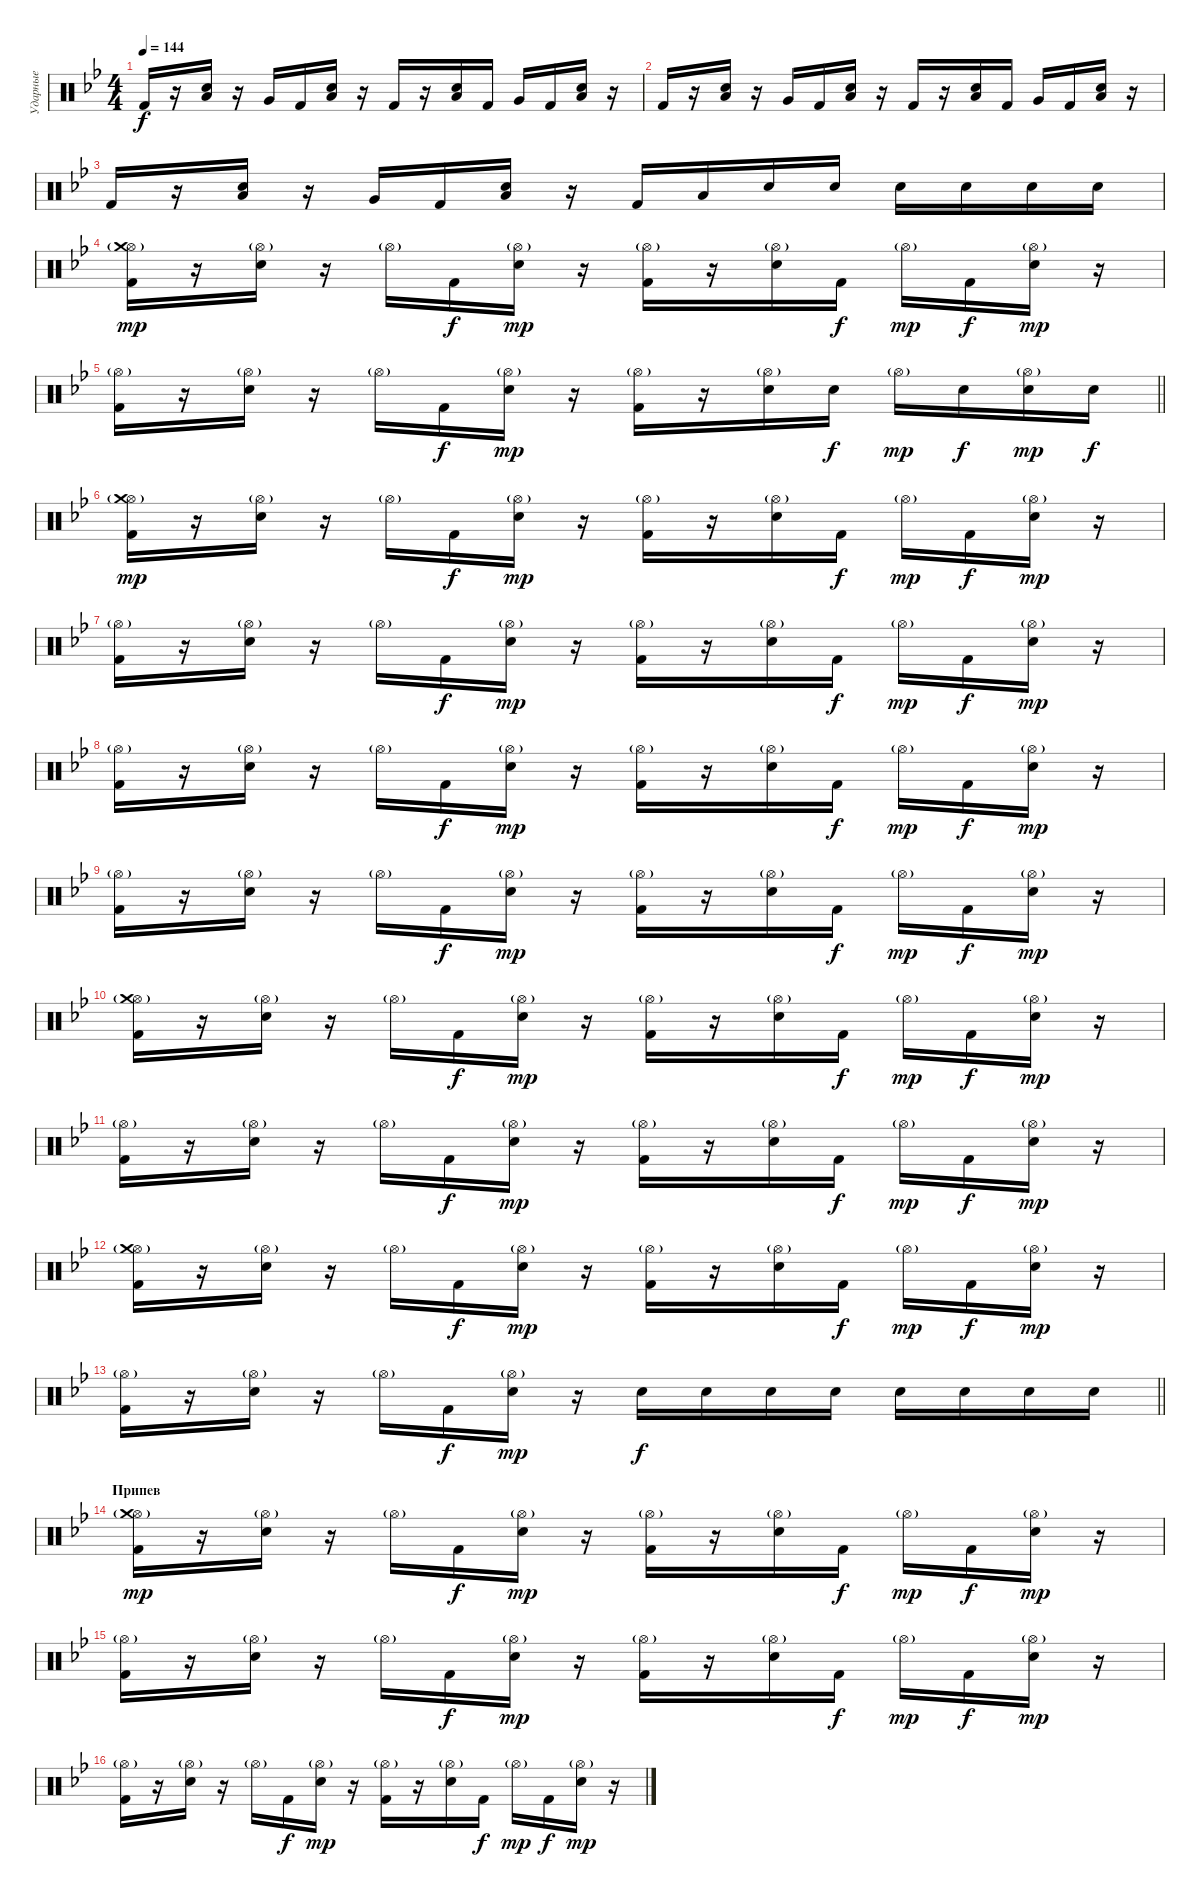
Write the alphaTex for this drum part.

\track ("Ударные" "Ударные") {instrument percussion}
\staff {score}
\articulation defaults
\ts (4 4)
\tempo 144
\clef neutral
\ks gminor "Kick (hit) 2".16{dy f}
r.16 ("Electric Snare (hit)" "Low Tom (hit)").16 r.16 "Very Low Tom (hit)".16 "Kick (hit) 2".16 ("Electric Snare (hit)" "Low Tom (hit)").16 r.16 "Kick (hit) 2".16 r.16 ("Electric Snare (hit)" "Low Tom (hit)").16 "Kick (hit) 2".16 "Very Low Tom (hit)".16 "Kick (hit) 2".16 ("Electric Snare (hit)" "Low Tom (hit)").16 r.16 |
"Kick (hit) 2".16 r.16 ("Electric Snare (hit)" "Low Tom (hit)").16 r.16 "Very Low Tom (hit)".16 "Kick (hit) 2".16 ("Electric Snare (hit)" "Low Tom (hit)").16 r.16 "Kick (hit) 2".16 r.16 ("Electric Snare (hit)" "Low Tom (hit)").16 "Kick (hit) 2".16 "Very Low Tom (hit)".16 "Kick (hit) 2".16 ("Electric Snare (hit)" "Low Tom (hit)").16 r.16 |
"Kick (hit) 2".16 r.16 ("Electric Snare (hit)" "Low Tom (hit)").16 r.16 "Very Low Tom (hit)".16 "Kick (hit) 2".16 ("Electric Snare (hit)" "Low Tom (hit)").16 r.16 "Kick (hit) 2".16 "Low Tom (hit)".16 "Electric Snare (hit)".16 "Electric Snare (hit)".16 "Electric Snare (hit)".16 "Electric Snare (hit)".16 "Electric Snare (hit)".16 "Electric Snare (hit)".16 |
("Hi-Hat (open)"{g} "Crash medium (hit)" "Kick (hit) 2").16{dy mp} r.16 ("Hi-Hat (open)"{g} "Electric Snare (hit)").16 r.16 "Hi-Hat (open)"{g}.16 "Kick (hit) 2".16{dy f} ("Hi-Hat (open)"{g} "Electric Snare (hit)").16{dy mp} r.16 ("Hi-Hat (open)"{g} "Kick (hit) 2").16 r.16 ("Hi-Hat (open)"{g} "Electric Snare (hit)").16 "Kick (hit) 2".16{dy f} "Hi-Hat (open)"{g}.16{dy mp} "Kick (hit) 2".16{dy f} ("Hi-Hat (open)"{g} "Electric Snare (hit)").16{dy mp} r.16 |
\barLineRight lightlight
("Hi-Hat (open)"{g} "Kick (hit) 2").16 r.16 ("Hi-Hat (open)"{g} "Electric Snare (hit)").16 r.16 "Hi-Hat (open)"{g}.16 "Kick (hit) 2".16{dy f} ("Hi-Hat (open)"{g} "Electric Snare (hit)").16{dy mp} r.16 ("Hi-Hat (open)"{g} "Kick (hit) 2").16 r.16 ("Hi-Hat (open)"{g} "Electric Snare (hit)").16 "Electric Snare (hit)".16{dy f} "Hi-Hat (open)"{g}.16{dy mp} "Electric Snare (hit)".16{dy f} ("Hi-Hat (open)"{g} "Electric Snare (hit)").16{dy mp} "Electric Snare (hit)".16{dy f} |
\section ("" "")
("Hi-Hat (open)"{g} "Crash medium (hit)" "Kick (hit) 2").16{dy mp} r.16 ("Hi-Hat (open)"{g} "Electric Snare (hit)").16 r.16 "Hi-Hat (open)"{g}.16 "Kick (hit) 2".16{dy f} ("Hi-Hat (open)"{g} "Electric Snare (hit)").16{dy mp} r.16 ("Hi-Hat (open)"{g} "Kick (hit) 2").16 r.16 ("Hi-Hat (open)"{g} "Electric Snare (hit)").16 "Kick (hit) 2".16{dy f} "Hi-Hat (open)"{g}.16{dy mp} "Kick (hit) 2".16{dy f} ("Hi-Hat (open)"{g} "Electric Snare (hit)").16{dy mp} r.16 |
("Hi-Hat (open)"{g} "Kick (hit) 2").16 r.16 ("Hi-Hat (open)"{g} "Electric Snare (hit)").16 r.16 "Hi-Hat (open)"{g}.16 "Kick (hit) 2".16{dy f} ("Hi-Hat (open)"{g} "Electric Snare (hit)").16{dy mp} r.16 ("Hi-Hat (open)"{g} "Kick (hit) 2").16 r.16 ("Hi-Hat (open)"{g} "Electric Snare (hit)").16 "Kick (hit) 2".16{dy f} "Hi-Hat (open)"{g}.16{dy mp} "Kick (hit) 2".16{dy f} ("Hi-Hat (open)"{g} "Electric Snare (hit)").16{dy mp} r.16 |
("Hi-Hat (open)"{g} "Kick (hit) 2").16 r.16 ("Hi-Hat (open)"{g} "Electric Snare (hit)").16 r.16 "Hi-Hat (open)"{g}.16 "Kick (hit) 2".16{dy f} ("Hi-Hat (open)"{g} "Electric Snare (hit)").16{dy mp} r.16 ("Hi-Hat (open)"{g} "Kick (hit) 2").16 r.16 ("Hi-Hat (open)"{g} "Electric Snare (hit)").16 "Kick (hit) 2".16{dy f} "Hi-Hat (open)"{g}.16{dy mp} "Kick (hit) 2".16{dy f} ("Hi-Hat (open)"{g} "Electric Snare (hit)").16{dy mp} r.16 |
("Hi-Hat (open)"{g} "Kick (hit) 2").16 r.16 ("Hi-Hat (open)"{g} "Electric Snare (hit)").16 r.16 "Hi-Hat (open)"{g}.16 "Kick (hit) 2".16{dy f} ("Hi-Hat (open)"{g} "Electric Snare (hit)").16{dy mp} r.16 ("Hi-Hat (open)"{g} "Kick (hit) 2").16 r.16 ("Hi-Hat (open)"{g} "Electric Snare (hit)").16 "Kick (hit) 2".16{dy f} "Hi-Hat (open)"{g}.16{dy mp} "Kick (hit) 2".16{dy f} ("Hi-Hat (open)"{g} "Electric Snare (hit)").16{dy mp} r.16 |
("Hi-Hat (open)"{g} "Crash medium (hit)" "Kick (hit) 2").16 r.16 ("Hi-Hat (open)"{g} "Electric Snare (hit)").16 r.16 "Hi-Hat (open)"{g}.16 "Kick (hit) 2".16{dy f} ("Hi-Hat (open)"{g} "Electric Snare (hit)").16{dy mp} r.16 ("Hi-Hat (open)"{g} "Kick (hit) 2").16 r.16 ("Hi-Hat (open)"{g} "Electric Snare (hit)").16 "Kick (hit) 2".16{dy f} "Hi-Hat (open)"{g}.16{dy mp} "Kick (hit) 2".16{dy f} ("Hi-Hat (open)"{g} "Electric Snare (hit)").16{dy mp} r.16 |
("Hi-Hat (open)"{g} "Kick (hit) 2").16 r.16 ("Hi-Hat (open)"{g} "Electric Snare (hit)").16 r.16 "Hi-Hat (open)"{g}.16 "Kick (hit) 2".16{dy f} ("Hi-Hat (open)"{g} "Electric Snare (hit)").16{dy mp} r.16 ("Hi-Hat (open)"{g} "Kick (hit) 2").16 r.16 ("Hi-Hat (open)"{g} "Electric Snare (hit)").16 "Kick (hit) 2".16{dy f} "Hi-Hat (open)"{g}.16{dy mp} "Kick (hit) 2".16{dy f} ("Hi-Hat (open)"{g} "Electric Snare (hit)").16{dy mp} r.16 |
("Hi-Hat (open)"{g} "Crash medium (hit)" "Kick (hit) 2").16 r.16 ("Hi-Hat (open)"{g} "Electric Snare (hit)").16 r.16 "Hi-Hat (open)"{g}.16 "Kick (hit) 2".16{dy f} ("Hi-Hat (open)"{g} "Electric Snare (hit)").16{dy mp} r.16 ("Hi-Hat (open)"{g} "Kick (hit) 2").16 r.16 ("Hi-Hat (open)"{g} "Electric Snare (hit)").16 "Kick (hit) 2".16{dy f} "Hi-Hat (open)"{g}.16{dy mp} "Kick (hit) 2".16{dy f} ("Hi-Hat (open)"{g} "Electric Snare (hit)").16{dy mp} r.16 |
\barLineRight lightlight
("Hi-Hat (open)"{g} "Kick (hit) 2").16 r.16 ("Hi-Hat (open)"{g} "Electric Snare (hit)").16 r.16 "Hi-Hat (open)"{g}.16 "Kick (hit) 2".16{dy f} ("Hi-Hat (open)"{g} "Electric Snare (hit)").16{dy mp} r.16 "Electric Snare (hit)".16{dy f} "Electric Snare (hit)".16 "Electric Snare (hit)".16 "Electric Snare (hit)".16 "Electric Snare (hit)".16 "Electric Snare (hit)".16 "Electric Snare (hit)".16 "Electric Snare (hit)".16 |
\section ("" "Припев")
("Hi-Hat (open)"{g} "Crash medium (hit)" "Kick (hit) 2").16{dy mp} r.16 ("Hi-Hat (open)"{g} "Electric Snare (hit)").16 r.16 "Hi-Hat (open)"{g}.16 "Kick (hit) 2".16{dy f} ("Hi-Hat (open)"{g} "Electric Snare (hit)").16{dy mp} r.16 ("Hi-Hat (open)"{g} "Kick (hit) 2").16 r.16 ("Hi-Hat (open)"{g} "Electric Snare (hit)").16 "Kick (hit) 2".16{dy f} "Hi-Hat (open)"{g}.16{dy mp} "Kick (hit) 2".16{dy f} ("Hi-Hat (open)"{g} "Electric Snare (hit)").16{dy mp} r.16 |
("Hi-Hat (open)"{g} "Kick (hit) 2").16 r.16 ("Hi-Hat (open)"{g} "Electric Snare (hit)").16 r.16 "Hi-Hat (open)"{g}.16 "Kick (hit) 2".16{dy f} ("Hi-Hat (open)"{g} "Electric Snare (hit)").16{dy mp} r.16 ("Hi-Hat (open)"{g} "Kick (hit) 2").16 r.16 ("Hi-Hat (open)"{g} "Electric Snare (hit)").16 "Kick (hit) 2".16{dy f} "Hi-Hat (open)"{g}.16{dy mp} "Kick (hit) 2".16{dy f} ("Hi-Hat (open)"{g} "Electric Snare (hit)").16{dy mp} r.16 |
("Hi-Hat (open)"{g} "Kick (hit) 2").16 r.16 ("Hi-Hat (open)"{g} "Electric Snare (hit)").16 r.16 "Hi-Hat (open)"{g}.16 "Kick (hit) 2".16{dy f} ("Hi-Hat (open)"{g} "Electric Snare (hit)").16{dy mp} r.16 ("Hi-Hat (open)"{g} "Kick (hit) 2").16 r.16 ("Hi-Hat (open)"{g} "Electric Snare (hit)").16 "Kick (hit) 2".16{dy f} "Hi-Hat (open)"{g}.16{dy mp} "Kick (hit) 2".16{dy f} ("Hi-Hat (open)"{g} "Electric Snare (hit)").16{dy mp} r.16
